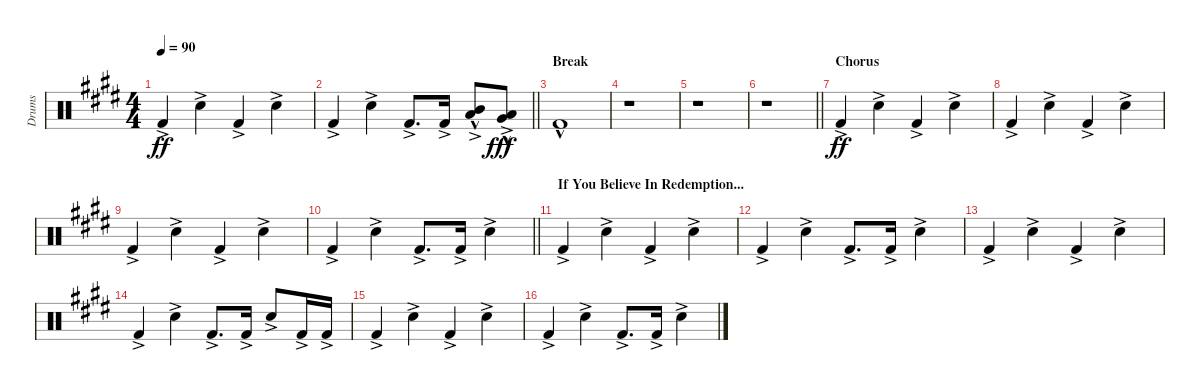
\track ("Drums" "Drums") {instrument percussion}
\staff {score}
\articulation defaults
\ts (4 4)
\tempo 90
\clef neutral
\ks e "Kick (hit) 2"{ac}.4{dy ff} "Electric Snare (hit)"{ac}.4 "Kick (hit) 2"{ac}.4 "Electric Snare (hit)"{ac}.4
|
\barLineRight lightlight "Kick (hit) 2"{ac}.4 "Electric Snare (hit)"{ac}.4 "Kick (hit) 2"{ac}.8{d} "Kick (hit) 2"{ac}.16
("Mid Tom (hit)"{hac} "Low Tom (hit)"{ac}).8 ("Very Low Tom (hit)"{ac} "Low Floor Tom (hit)"{hac}).8{dy fff} |
\section ("" "Break")
"Kick (hit) 2"{hac}.1 |
r.1 |
r.1 |
\barLineRight lightlight
r.1 |
\section ("" "Chorus")
"Kick (hit) 2"{ac}.4{dy ff} "Electric Snare (hit)"{ac}.4 "Kick (hit) 2"{ac}.4 "Electric Snare (hit)"{ac}.4 |
"Kick (hit) 2"{ac}.4 "Electric Snare (hit)"{ac}.4 "Kick (hit) 2"{ac}.4 "Electric Snare (hit)"{ac}.4 |
"Kick (hit) 2"{ac}.4 "Electric Snare (hit)"{ac}.4 "Kick (hit) 2"{ac}.4 "Electric Snare (hit)"{ac}.4 |
\barLineRight lightlight "Kick (hit) 2"{ac}.4 "Electric Snare (hit)"{ac}.4 "Kick (hit) 2"{ac}.8{d} "Kick (hit) 2"{ac}.16 "Electric Snare (hit)"{ac}.4
|
\section ("" "If You Believe In Redemption...")
"Kick (hit) 2"{ac}.4 "Electric Snare (hit)"{ac}.4 "Kick (hit) 2"{ac}.4 "Electric Snare (hit)"{ac}.4 |
"Kick (hit) 2"{ac}.4 "Electric Snare (hit)"{ac}.4 "Kick (hit) 2"{ac}.8{d} "Kick (hit) 2"{ac}.16 "Electric Snare (hit)"{ac}.4 |
"Kick (hit) 2"{ac}.4 "Electric Snare (hit)"{ac}.4 "Kick (hit) 2"{ac}.4 "Electric Snare (hit)"{ac}.4 |
"Kick (hit) 2"{ac}.4 "Electric Snare (hit)"{ac}.4 "Kick (hit) 2"{ac}.8{d} "Kick (hit) 2"{ac}.16 "Electric Snare (hit)"{ac}.8 "Kick (hit) 2"{ac}.16 "Kick (hit) 2"{ac}.16 |
"Kick (hit) 2"{ac}.4 "Electric Snare (hit)"{ac}.4 "Kick (hit) 2"{ac}.4 "Electric Snare (hit)"{ac}.4 |
"Kick (hit) 2"{ac}.4 "Electric Snare (hit)"{ac}.4 "Kick (hit) 2"{ac}.8{d} "Kick (hit) 2"{ac}.16 "Electric Snare (hit)"{ac}.4
